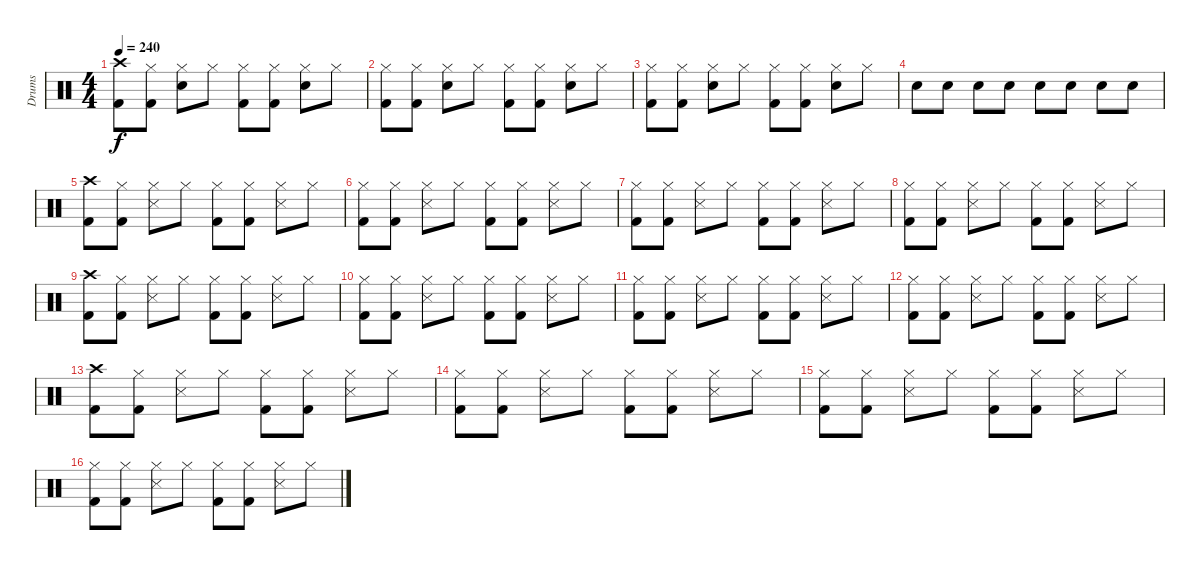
\track ("Drums" "Drums") {instrument percussion}
\staff {score}
\articulation defaults
\ts (4 4)
\tempo 240
\clef neutral
\ks c
("Crash high (hit)" "Kick (hit) 2").8{dy f} ("Hi-Hat (closed)" "Kick (hit) 2").8 ("Hi-Hat (closed)" "Snare (hit) 2").8 "Hi-Hat (closed)".8 ("Hi-Hat (closed)" "Kick (hit) 2").8 ("Hi-Hat (closed)" "Kick (hit) 2").8 ("Hi-Hat (closed)" "Snare (hit) 2").8 "Hi-Hat (closed)".8 |
("Hi-Hat (closed)" "Kick (hit) 2").8 ("Hi-Hat (closed)" "Kick (hit) 2").8 ("Hi-Hat (closed)" "Snare (hit) 2").8 "Hi-Hat (closed)".8 ("Hi-Hat (closed)" "Kick (hit) 2").8 ("Hi-Hat (closed)" "Kick (hit) 2").8 ("Hi-Hat (closed)" "Snare (hit) 2").8 "Hi-Hat (closed)".8 |
("Hi-Hat (closed)" "Kick (hit) 2").8 ("Hi-Hat (closed)" "Kick (hit) 2").8 ("Hi-Hat (closed)" "Snare (hit) 2").8 "Hi-Hat (closed)".8 ("Hi-Hat (closed)" "Kick (hit) 2").8 ("Hi-Hat (closed)" "Kick (hit) 2").8 ("Hi-Hat (closed)" "Snare (hit) 2").8 "Hi-Hat (closed)".8 |
"Snare (hit) 2".8 "Snare (hit) 2".8 "Snare (hit) 2".8 "Snare (hit) 2".8 "Snare (hit) 2".8 "Snare (hit) 2".8 "Snare (hit) 2".8 "Snare (hit) 2".8 |
("Crash high (hit)" "Kick (hit) 2").8 ("Hi-Hat (closed)" "Kick (hit) 2").8 ("Hi-Hat (closed)" "Snare (side stick) 3").8 "Hi-Hat (closed)".8 ("Hi-Hat (closed)" "Kick (hit) 2").8 ("Hi-Hat (closed)" "Kick (hit) 2").8 ("Hi-Hat (closed)" "Snare (side stick) 3").8 "Hi-Hat (closed)".8 |
("Hi-Hat (closed)" "Kick (hit) 2").8 ("Hi-Hat (closed)" "Kick (hit) 2").8 ("Hi-Hat (closed)" "Snare (side stick) 3").8 "Hi-Hat (closed)".8 ("Hi-Hat (closed)" "Kick (hit) 2").8 ("Hi-Hat (closed)" "Kick (hit) 2").8 ("Hi-Hat (closed)" "Snare (side stick) 3").8 "Hi-Hat (closed)".8 |
("Hi-Hat (closed)" "Kick (hit) 2").8 ("Hi-Hat (closed)" "Kick (hit) 2").8 ("Hi-Hat (closed)" "Snare (side stick) 3").8 "Hi-Hat (closed)".8 ("Hi-Hat (closed)" "Kick (hit) 2").8 ("Hi-Hat (closed)" "Kick (hit) 2").8 ("Hi-Hat (closed)" "Snare (side stick) 3").8 "Hi-Hat (closed)".8 |
("Hi-Hat (closed)" "Kick (hit) 2").8 ("Hi-Hat (closed)" "Kick (hit) 2").8 ("Hi-Hat (closed)" "Snare (side stick) 3").8 "Hi-Hat (closed)".8 ("Hi-Hat (closed)" "Kick (hit) 2").8 ("Hi-Hat (closed)" "Kick (hit) 2").8 ("Hi-Hat (closed)" "Snare (side stick) 3").8 "Hi-Hat (closed)".8 |
("Crash high (hit)" "Kick (hit) 2").8 ("Hi-Hat (closed)" "Kick (hit) 2").8 ("Hi-Hat (closed)" "Snare (side stick) 3").8 "Hi-Hat (closed)".8 ("Hi-Hat (closed)" "Kick (hit) 2").8 ("Hi-Hat (closed)" "Kick (hit) 2").8 ("Hi-Hat (closed)" "Snare (side stick) 3").8 "Hi-Hat (closed)".8 |
("Hi-Hat (closed)" "Kick (hit) 2").8 ("Hi-Hat (closed)" "Kick (hit) 2").8 ("Hi-Hat (closed)" "Snare (side stick) 3").8 "Hi-Hat (closed)".8 ("Hi-Hat (closed)" "Kick (hit) 2").8 ("Hi-Hat (closed)" "Kick (hit) 2").8 ("Hi-Hat (closed)" "Snare (side stick) 3").8 "Hi-Hat (closed)".8 |
("Hi-Hat (closed)" "Kick (hit) 2").8 ("Hi-Hat (closed)" "Kick (hit) 2").8 ("Hi-Hat (closed)" "Snare (side stick) 3").8 "Hi-Hat (closed)".8 ("Hi-Hat (closed)" "Kick (hit) 2").8 ("Hi-Hat (closed)" "Kick (hit) 2").8 ("Hi-Hat (closed)" "Snare (side stick) 3").8 "Hi-Hat (closed)".8 |
("Hi-Hat (closed)" "Kick (hit) 2").8 ("Hi-Hat (closed)" "Kick (hit) 2").8 ("Hi-Hat (closed)" "Snare (side stick) 3").8 "Hi-Hat (closed)".8 ("Hi-Hat (closed)" "Kick (hit) 2").8 ("Hi-Hat (closed)" "Kick (hit) 2").8 ("Hi-Hat (closed)" "Snare (side stick) 3").8 "Hi-Hat (closed)".8 |
("Crash high (hit)" "Kick (hit) 2").8 ("Hi-Hat (closed)" "Kick (hit) 2").8 ("Hi-Hat (closed)" "Snare (side stick) 3").8 "Hi-Hat (closed)".8 ("Hi-Hat (closed)" "Kick (hit) 2").8 ("Hi-Hat (closed)" "Kick (hit) 2").8 ("Hi-Hat (closed)" "Snare (side stick) 3").8 "Hi-Hat (closed)".8 |
("Hi-Hat (closed)" "Kick (hit) 2").8 ("Hi-Hat (closed)" "Kick (hit) 2").8 ("Hi-Hat (closed)" "Snare (side stick) 3").8 "Hi-Hat (closed)".8 ("Hi-Hat (closed)" "Kick (hit) 2").8 ("Hi-Hat (closed)" "Kick (hit) 2").8 ("Hi-Hat (closed)" "Snare (side stick) 3").8 "Hi-Hat (closed)".8 |
("Hi-Hat (closed)" "Kick (hit) 2").8 ("Hi-Hat (closed)" "Kick (hit) 2").8 ("Hi-Hat (closed)" "Snare (side stick) 3").8 "Hi-Hat (closed)".8 ("Hi-Hat (closed)" "Kick (hit) 2").8 ("Hi-Hat (closed)" "Kick (hit) 2").8 ("Hi-Hat (closed)" "Snare (side stick) 3").8 "Hi-Hat (closed)".8 |
("Hi-Hat (closed)" "Kick (hit) 2").8 ("Hi-Hat (closed)" "Kick (hit) 2").8 ("Hi-Hat (closed)" "Snare (side stick) 3").8 "Hi-Hat (closed)".8 ("Hi-Hat (closed)" "Kick (hit) 2").8 ("Hi-Hat (closed)" "Kick (hit) 2").8 ("Hi-Hat (closed)" "Snare (side stick) 3").8 "Hi-Hat (closed)".8
